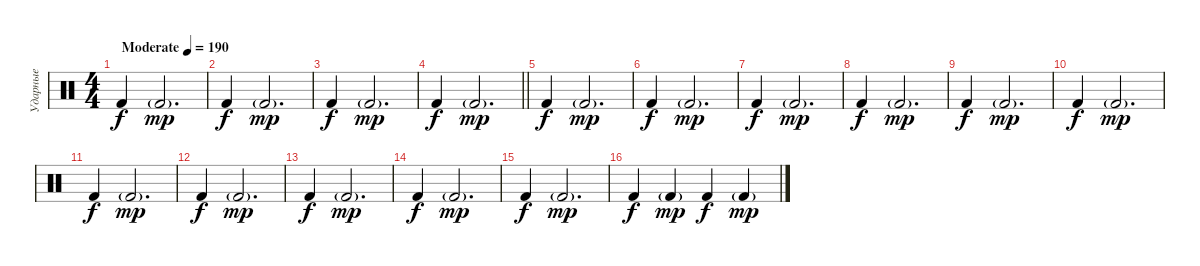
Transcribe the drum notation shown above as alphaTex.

\track ("Ударные" "Ударные") {instrument percussion}
\staff {score}
\articulation defaults
\ts (4 4)
\section ("" "")
\tempo (190 "Moderate")
\clef neutral
\ks c "Kick (hit) 2".4{dy f} "Kick (hit) 2"{g}.2{d dy mp}
|
"Kick (hit) 2".4{dy f} "Kick (hit) 2"{g}.2{d dy mp} |
"Kick (hit) 2".4{dy f} "Kick (hit) 2"{g}.2{d dy mp} |
\barLineRight lightlight "Kick (hit) 2".4{dy f} "Kick (hit) 2"{g}.2{d dy mp}
|
\section ("" "")
"Kick (hit) 2".4{dy f} "Kick (hit) 2"{g}.2{d dy mp} |
"Kick (hit) 2".4{dy f} "Kick (hit) 2"{g}.2{d dy mp} |
"Kick (hit) 2".4{dy f} "Kick (hit) 2"{g}.2{d dy mp} |
"Kick (hit) 2".4{dy f} "Kick (hit) 2"{g}.2{d dy mp} |
"Kick (hit) 2".4{dy f} "Kick (hit) 2"{g}.2{d dy mp} |
"Kick (hit) 2".4{dy f} "Kick (hit) 2"{g}.2{d dy mp} |
"Kick (hit) 2".4{dy f} "Kick (hit) 2"{g}.2{d dy mp} |
"Kick (hit) 2".4{dy f} "Kick (hit) 2"{g}.2{d dy mp} |
"Kick (hit) 2".4{dy f} "Kick (hit) 2"{g}.2{d dy mp} |
"Kick (hit) 2".4{dy f} "Kick (hit) 2"{g}.2{d dy mp} |
"Kick (hit) 2".4{dy f} "Kick (hit) 2"{g}.2{d dy mp} |
"Kick (hit) 2".4{dy f} "Kick (hit) 2"{g}.4{dy mp} "Kick (hit) 2".4{dy f} "Kick (hit) 2"{g}.4{dy mp}
